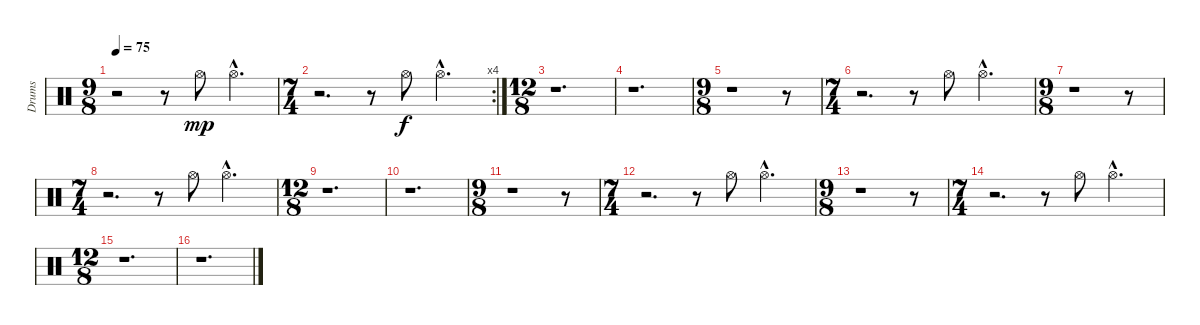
\track ("Drums" "Drums") {instrument percussion}
\staff {score}
\articulation defaults
\ts (9 8)
\tempo 75
\clef neutral
\ks c
r.2{dy mp volume 8} r.8 "Hi-Hat (open)".8 "Hi-Hat (open)"{hac}.4{d} |
\rc 4
\ts (7 4)
r.2{d} r.8 "Hi-Hat (open)".8{dy f} "Hi-Hat (open)"{hac}.2{d} |
\ts (12 8)
r.1{d} |
r.1{d} |
\ts (9 8)
r.1 r.8 |
\ts (7 4)
r.2{d} r.8 "Hi-Hat (open)".8 "Hi-Hat (open)"{hac}.2{d} |
\ts (9 8)
r.1 r.8 |
\ts (7 4)
r.2{d} r.8 "Hi-Hat (open)".8 "Hi-Hat (open)"{hac}.2{d} |
\ts (12 8)
r.1{d} |
r.1{d} |
\ts (9 8)
r.1 r.8 |
\ts (7 4)
r.2{d} r.8 "Hi-Hat (open)".8 "Hi-Hat (open)"{hac}.2{d} |
\ts (9 8)
r.1 r.8 |
\ts (7 4)
r.2{d} r.8 "Hi-Hat (open)".8 "Hi-Hat (open)"{hac}.2{d} |
\ts (12 8)
r.1{d} |
r.1{d}
